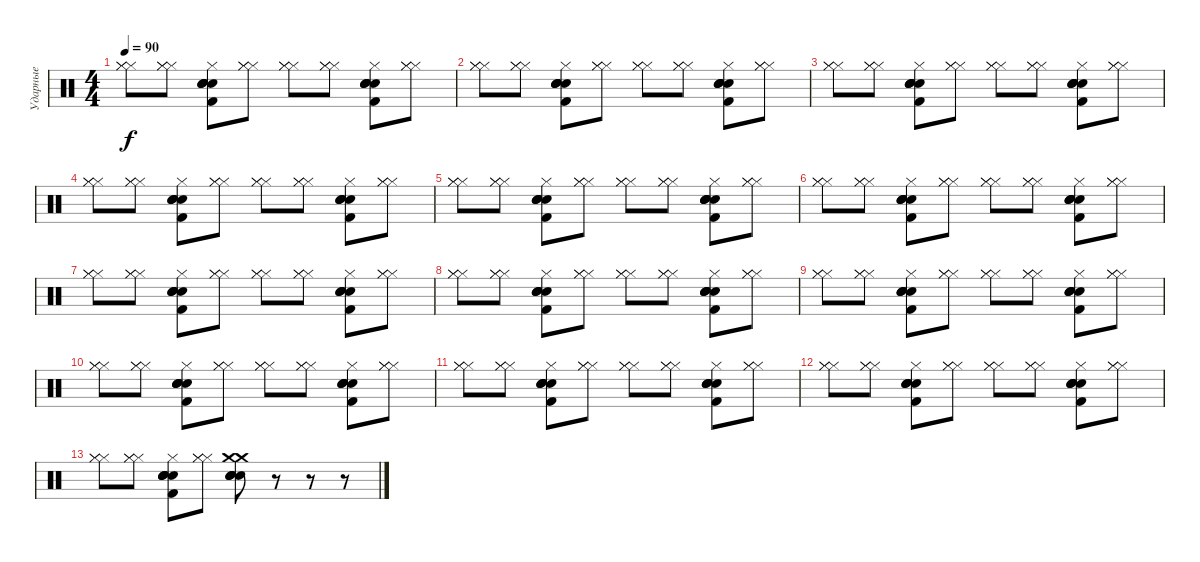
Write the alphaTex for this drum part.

\track ("Ударные" "Ударные") {instrument percussion}
\staff {score}
\articulation defaults
\ts (4 4)
\tempo 90
\clef neutral
\ks c
("Hi-Hat (closed)" "Hi-Hat (closed)" "Hi-Hat (closed)").8{dy f} ("Hi-Hat (closed)" "Hi-Hat (closed)" "Hi-Hat (closed)").8 ("Electric Snare (hit)" "Electric Snare (hit)" "Electric Snare (hit)" "Electric Snare (hit)" "Hi-Hat (closed)" "Kick (hit) 2").8 ("Hi-Hat (closed)" "Hi-Hat (closed)" "Hi-Hat (closed)").8 ("Hi-Hat (closed)" "Hi-Hat (closed)" "Hi-Hat (closed)").8 ("Hi-Hat (closed)" "Hi-Hat (closed)" "Hi-Hat (closed)").8 ("Electric Snare (hit)" "Electric Snare (hit)" "Electric Snare (hit)" "Electric Snare (hit)" "Hi-Hat (closed)" "Kick (hit) 2").8 ("Hi-Hat (closed)" "Hi-Hat (closed)" "Hi-Hat (closed)").8 |
("Hi-Hat (closed)" "Hi-Hat (closed)" "Hi-Hat (closed)").8 ("Hi-Hat (closed)" "Hi-Hat (closed)" "Hi-Hat (closed)").8 ("Electric Snare (hit)" "Electric Snare (hit)" "Electric Snare (hit)" "Electric Snare (hit)" "Hi-Hat (closed)" "Kick (hit) 2").8 ("Hi-Hat (closed)" "Hi-Hat (closed)" "Hi-Hat (closed)").8 ("Hi-Hat (closed)" "Hi-Hat (closed)" "Hi-Hat (closed)").8 ("Hi-Hat (closed)" "Hi-Hat (closed)" "Hi-Hat (closed)").8 ("Electric Snare (hit)" "Electric Snare (hit)" "Electric Snare (hit)" "Electric Snare (hit)" "Hi-Hat (closed)" "Kick (hit) 2").8 ("Hi-Hat (closed)" "Hi-Hat (closed)" "Hi-Hat (closed)").8 |
("Hi-Hat (closed)" "Hi-Hat (closed)" "Hi-Hat (closed)").8 ("Hi-Hat (closed)" "Hi-Hat (closed)" "Hi-Hat (closed)").8 ("Electric Snare (hit)" "Electric Snare (hit)" "Electric Snare (hit)" "Electric Snare (hit)" "Hi-Hat (closed)" "Kick (hit) 2").8 ("Hi-Hat (closed)" "Hi-Hat (closed)" "Hi-Hat (closed)").8 ("Hi-Hat (closed)" "Hi-Hat (closed)" "Hi-Hat (closed)").8 ("Hi-Hat (closed)" "Hi-Hat (closed)" "Hi-Hat (closed)").8 ("Electric Snare (hit)" "Electric Snare (hit)" "Electric Snare (hit)" "Electric Snare (hit)" "Hi-Hat (closed)" "Kick (hit) 2").8 ("Hi-Hat (closed)" "Hi-Hat (closed)" "Hi-Hat (closed)").8 |
("Hi-Hat (closed)" "Hi-Hat (closed)" "Hi-Hat (closed)").8 ("Hi-Hat (closed)" "Hi-Hat (closed)" "Hi-Hat (closed)").8 ("Electric Snare (hit)" "Electric Snare (hit)" "Electric Snare (hit)" "Electric Snare (hit)" "Hi-Hat (closed)" "Kick (hit) 2").8 ("Hi-Hat (closed)" "Hi-Hat (closed)" "Hi-Hat (closed)").8 ("Hi-Hat (closed)" "Hi-Hat (closed)" "Hi-Hat (closed)").8 ("Hi-Hat (closed)" "Hi-Hat (closed)" "Hi-Hat (closed)").8 ("Electric Snare (hit)" "Electric Snare (hit)" "Electric Snare (hit)" "Electric Snare (hit)" "Hi-Hat (closed)" "Kick (hit) 2").8 ("Hi-Hat (closed)" "Hi-Hat (closed)" "Hi-Hat (closed)").8 |
("Hi-Hat (closed)" "Hi-Hat (closed)" "Hi-Hat (closed)").8 ("Hi-Hat (closed)" "Hi-Hat (closed)" "Hi-Hat (closed)").8 ("Electric Snare (hit)" "Electric Snare (hit)" "Electric Snare (hit)" "Electric Snare (hit)" "Hi-Hat (closed)" "Kick (hit) 2").8 ("Hi-Hat (closed)" "Hi-Hat (closed)" "Hi-Hat (closed)").8 ("Hi-Hat (closed)" "Hi-Hat (closed)" "Hi-Hat (closed)").8 ("Hi-Hat (closed)" "Hi-Hat (closed)" "Hi-Hat (closed)").8 ("Electric Snare (hit)" "Electric Snare (hit)" "Electric Snare (hit)" "Electric Snare (hit)" "Hi-Hat (closed)" "Kick (hit) 2").8 ("Hi-Hat (closed)" "Hi-Hat (closed)" "Hi-Hat (closed)").8 |
("Hi-Hat (closed)" "Hi-Hat (closed)" "Hi-Hat (closed)").8 ("Hi-Hat (closed)" "Hi-Hat (closed)" "Hi-Hat (closed)").8 ("Electric Snare (hit)" "Electric Snare (hit)" "Electric Snare (hit)" "Electric Snare (hit)" "Hi-Hat (closed)" "Kick (hit) 2").8 ("Hi-Hat (closed)" "Hi-Hat (closed)" "Hi-Hat (closed)").8 ("Hi-Hat (closed)" "Hi-Hat (closed)" "Hi-Hat (closed)").8 ("Hi-Hat (closed)" "Hi-Hat (closed)" "Hi-Hat (closed)").8 ("Electric Snare (hit)" "Electric Snare (hit)" "Electric Snare (hit)" "Electric Snare (hit)" "Hi-Hat (closed)" "Kick (hit) 2").8 ("Hi-Hat (closed)" "Hi-Hat (closed)" "Hi-Hat (closed)").8 |
("Hi-Hat (closed)" "Hi-Hat (closed)" "Hi-Hat (closed)").8 ("Hi-Hat (closed)" "Hi-Hat (closed)" "Hi-Hat (closed)").8 ("Electric Snare (hit)" "Electric Snare (hit)" "Electric Snare (hit)" "Electric Snare (hit)" "Hi-Hat (closed)" "Kick (hit) 2").8 ("Hi-Hat (closed)" "Hi-Hat (closed)" "Hi-Hat (closed)").8 ("Hi-Hat (closed)" "Hi-Hat (closed)" "Hi-Hat (closed)").8 ("Hi-Hat (closed)" "Hi-Hat (closed)" "Hi-Hat (closed)").8 ("Electric Snare (hit)" "Electric Snare (hit)" "Electric Snare (hit)" "Electric Snare (hit)" "Hi-Hat (closed)" "Kick (hit) 2").8 ("Hi-Hat (closed)" "Hi-Hat (closed)" "Hi-Hat (closed)").8 |
("Hi-Hat (closed)" "Hi-Hat (closed)" "Hi-Hat (closed)").8 ("Hi-Hat (closed)" "Hi-Hat (closed)" "Hi-Hat (closed)").8 ("Electric Snare (hit)" "Electric Snare (hit)" "Electric Snare (hit)" "Electric Snare (hit)" "Hi-Hat (closed)" "Kick (hit) 2").8 ("Hi-Hat (closed)" "Hi-Hat (closed)" "Hi-Hat (closed)").8 ("Hi-Hat (closed)" "Hi-Hat (closed)" "Hi-Hat (closed)").8 ("Hi-Hat (closed)" "Hi-Hat (closed)" "Hi-Hat (closed)").8 ("Electric Snare (hit)" "Electric Snare (hit)" "Electric Snare (hit)" "Electric Snare (hit)" "Hi-Hat (closed)" "Kick (hit) 2").8 ("Hi-Hat (closed)" "Hi-Hat (closed)" "Hi-Hat (closed)").8 |
("Hi-Hat (closed)" "Hi-Hat (closed)" "Hi-Hat (closed)").8 ("Hi-Hat (closed)" "Hi-Hat (closed)" "Hi-Hat (closed)").8 ("Electric Snare (hit)" "Electric Snare (hit)" "Electric Snare (hit)" "Electric Snare (hit)" "Hi-Hat (closed)" "Kick (hit) 2").8 ("Hi-Hat (closed)" "Hi-Hat (closed)" "Hi-Hat (closed)").8 ("Hi-Hat (closed)" "Hi-Hat (closed)" "Hi-Hat (closed)").8 ("Hi-Hat (closed)" "Hi-Hat (closed)" "Hi-Hat (closed)").8 ("Electric Snare (hit)" "Electric Snare (hit)" "Electric Snare (hit)" "Electric Snare (hit)" "Hi-Hat (closed)" "Kick (hit) 2").8 ("Hi-Hat (closed)" "Hi-Hat (closed)" "Hi-Hat (closed)").8 |
("Hi-Hat (closed)" "Hi-Hat (closed)" "Hi-Hat (closed)").8 ("Hi-Hat (closed)" "Hi-Hat (closed)" "Hi-Hat (closed)").8 ("Electric Snare (hit)" "Electric Snare (hit)" "Electric Snare (hit)" "Electric Snare (hit)" "Hi-Hat (closed)" "Kick (hit) 2").8 ("Hi-Hat (closed)" "Hi-Hat (closed)" "Hi-Hat (closed)").8 ("Hi-Hat (closed)" "Hi-Hat (closed)" "Hi-Hat (closed)").8 ("Hi-Hat (closed)" "Hi-Hat (closed)" "Hi-Hat (closed)").8 ("Electric Snare (hit)" "Electric Snare (hit)" "Electric Snare (hit)" "Electric Snare (hit)" "Hi-Hat (closed)" "Kick (hit) 2").8 ("Hi-Hat (closed)" "Hi-Hat (closed)" "Hi-Hat (closed)").8 |
("Hi-Hat (closed)" "Hi-Hat (closed)" "Hi-Hat (closed)").8 ("Hi-Hat (closed)" "Hi-Hat (closed)" "Hi-Hat (closed)").8 ("Electric Snare (hit)" "Electric Snare (hit)" "Electric Snare (hit)" "Electric Snare (hit)" "Hi-Hat (closed)" "Kick (hit) 2").8 ("Hi-Hat (closed)" "Hi-Hat (closed)" "Hi-Hat (closed)").8 ("Hi-Hat (closed)" "Hi-Hat (closed)" "Hi-Hat (closed)").8 ("Hi-Hat (closed)" "Hi-Hat (closed)" "Hi-Hat (closed)").8 ("Electric Snare (hit)" "Electric Snare (hit)" "Electric Snare (hit)" "Electric Snare (hit)" "Hi-Hat (closed)" "Kick (hit) 2").8 ("Hi-Hat (closed)" "Hi-Hat (closed)" "Hi-Hat (closed)").8 |
("Hi-Hat (closed)" "Hi-Hat (closed)" "Hi-Hat (closed)").8 ("Hi-Hat (closed)" "Hi-Hat (closed)" "Hi-Hat (closed)").8 ("Electric Snare (hit)" "Electric Snare (hit)" "Electric Snare (hit)" "Electric Snare (hit)" "Hi-Hat (closed)" "Kick (hit) 2").8 ("Hi-Hat (closed)" "Hi-Hat (closed)" "Hi-Hat (closed)").8 ("Hi-Hat (closed)" "Hi-Hat (closed)" "Hi-Hat (closed)").8 ("Hi-Hat (closed)" "Hi-Hat (closed)" "Hi-Hat (closed)").8 ("Electric Snare (hit)" "Electric Snare (hit)" "Electric Snare (hit)" "Electric Snare (hit)" "Hi-Hat (closed)" "Kick (hit) 2").8 ("Hi-Hat (closed)" "Hi-Hat (closed)" "Hi-Hat (closed)").8 |
("Hi-Hat (closed)" "Hi-Hat (closed)" "Hi-Hat (closed)").8 ("Hi-Hat (closed)" "Hi-Hat (closed)" "Hi-Hat (closed)").8 ("Electric Snare (hit)" "Electric Snare (hit)" "Electric Snare (hit)" "Electric Snare (hit)" "Hi-Hat (closed)" "Kick (hit) 2").8 ("Hi-Hat (closed)" "Hi-Hat (closed)" "Hi-Hat (closed)").8 ("Electric Snare (hit)" "Crash medium (hit)" "Electric Snare (hit)" "Electric Snare (hit)" "Electric Snare (hit)" "Crash medium (hit)").8 r.8 r.8 r.8
